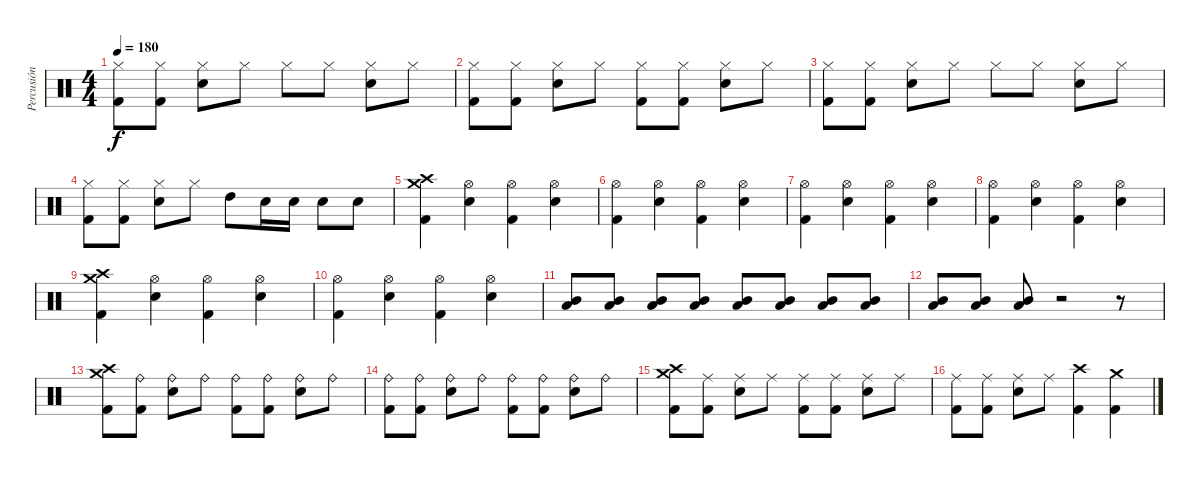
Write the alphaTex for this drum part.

\track ("Percusión" "Percusión") {instrument percussion}
\staff {score}
\articulation defaults
\ts (4 4)
\tempo 180
\clef neutral
\ks c
("Hi-Hat (closed)" "Kick (hit) 2").8{dy f} ("Hi-Hat (closed)" "Kick (hit) 2").8 ("Hi-Hat (closed)" "Electric Snare (hit)").8 "Hi-Hat (closed)".8 "Hi-Hat (closed)".8 "Hi-Hat (closed)".8 ("Hi-Hat (closed)" "Electric Snare (hit)").8 "Hi-Hat (closed)".8 |
("Hi-Hat (closed)" "Kick (hit) 2").8 ("Hi-Hat (closed)" "Kick (hit) 2").8 ("Hi-Hat (closed)" "Electric Snare (hit)").8 "Hi-Hat (closed)".8 ("Hi-Hat (closed)" "Kick (hit) 2").8 ("Hi-Hat (closed)" "Kick (hit) 2").8 ("Hi-Hat (closed)" "Electric Snare (hit)").8 "Hi-Hat (closed)".8 |
("Hi-Hat (closed)" "Kick (hit) 2").8 ("Hi-Hat (closed)" "Kick (hit) 2").8 ("Hi-Hat (closed)" "Electric Snare (hit)").8 "Hi-Hat (closed)".8 "Hi-Hat (closed)".8 "Hi-Hat (closed)".8 ("Hi-Hat (closed)" "Electric Snare (hit)").8 "Hi-Hat (closed)".8 |
("Hi-Hat (closed)" "Kick (hit) 2").8 ("Hi-Hat (closed)" "Kick (hit) 2").8 ("Hi-Hat (closed)" "Electric Snare (hit)").8 "Hi-Hat (closed)".8 "High Tom (hit)".8 "Electric Snare (hit)".16 "Electric Snare (hit)".16 "Electric Snare (hit)".8 "Electric Snare (hit)".8 |
("Crash high (hit)" "Crash medium (hit)" "Kick (hit) 2").4 ("Hi-Hat (open)" "Electric Snare (hit)").4 ("Hi-Hat (open)" "Kick (hit) 2").4 ("Hi-Hat (open)" "Electric Snare (hit)").4 |
("Hi-Hat (open)" "Kick (hit) 2").4 ("Hi-Hat (open)" "Electric Snare (hit)").4 ("Hi-Hat (open)" "Kick (hit) 2").4 ("Hi-Hat (open)" "Electric Snare (hit)").4 |
("Hi-Hat (open)" "Kick (hit) 2").4 ("Hi-Hat (open)" "Electric Snare (hit)").4 ("Hi-Hat (open)" "Kick (hit) 2").4 ("Hi-Hat (open)" "Electric Snare (hit)").4 |
("Hi-Hat (open)" "Kick (hit) 2").4 ("Hi-Hat (open)" "Electric Snare (hit)").4 ("Hi-Hat (open)" "Kick (hit) 2").4 ("Hi-Hat (open)" "Electric Snare (hit)").4 |
("Crash high (hit)" "Crash medium (hit)" "Kick (hit) 2").4 ("Hi-Hat (open)" "Electric Snare (hit)").4 ("Hi-Hat (open)" "Kick (hit) 2").4 ("Hi-Hat (open)" "Electric Snare (hit)").4 |
("Hi-Hat (open)" "Kick (hit) 2").4 ("Hi-Hat (open)" "Electric Snare (hit)").4 ("Hi-Hat (open)" "Kick (hit) 2").4 ("Hi-Hat (open)" "Electric Snare (hit)").4 |
("Mid Tom (hit)" "Low Floor Tom (hit)").8 ("Mid Tom (hit)" "Low Floor Tom (hit)").8 ("Mid Tom (hit)" "Low Floor Tom (hit)").8 ("Mid Tom (hit)" "Low Floor Tom (hit)").8 ("Mid Tom (hit)" "Low Floor Tom (hit)").8 ("Mid Tom (hit)" "Low Floor Tom (hit)").8 ("Mid Tom (hit)" "Low Floor Tom (hit)").8 ("Mid Tom (hit)" "Low Floor Tom (hit)").8 |
("Mid Tom (hit)" "Low Floor Tom (hit)").8 ("Mid Tom (hit)" "Low Floor Tom (hit)").8 ("Mid Tom (hit)" "Low Floor Tom (hit)").8 r.2 r.8 |
("Crash medium (hit)" "Crash high (hit)" "Kick (hit) 2").8 ("Ride (bell)" "Kick (hit) 2").8 ("Ride (bell)" "Electric Snare (hit)").8 "Ride (bell)".8 ("Ride (bell)" "Kick (hit) 2").8 ("Ride (bell)" "Kick (hit) 2").8 ("Ride (bell)" "Electric Snare (hit)").8 "Ride (bell)".8 |
("Ride (bell)" "Kick (hit) 2").8 ("Ride (bell)" "Kick (hit) 2").8 ("Ride (bell)" "Electric Snare (hit)").8 "Ride (bell)".8 ("Ride (bell)" "Kick (hit) 2").8 ("Ride (bell)" "Kick (hit) 2").8 ("Ride (bell)" "Electric Snare (hit)").8 "Ride (bell)".8 |
("Crash medium (hit)" "Crash high (hit)" "Kick (hit) 2").8 ("Ride (middle)" "Kick (hit) 2").8 ("Ride (middle)" "Electric Snare (hit)").8 "Ride (middle)".8 ("Ride (middle)" "Kick (hit) 2").8 ("Ride (middle)" "Kick (hit) 2").8 ("Ride (middle)" "Electric Snare (hit)").8 "Ride (middle)".8 |
("Ride (middle)" "Kick (hit) 2").8 ("Ride (middle)" "Kick (hit) 2").8 ("Ride (middle)" "Electric Snare (hit)").8 "Ride (middle)".8 ("Crash high (hit)" "Kick (hit) 2").4 ("Crash medium (hit)" "Kick (hit) 2").4
